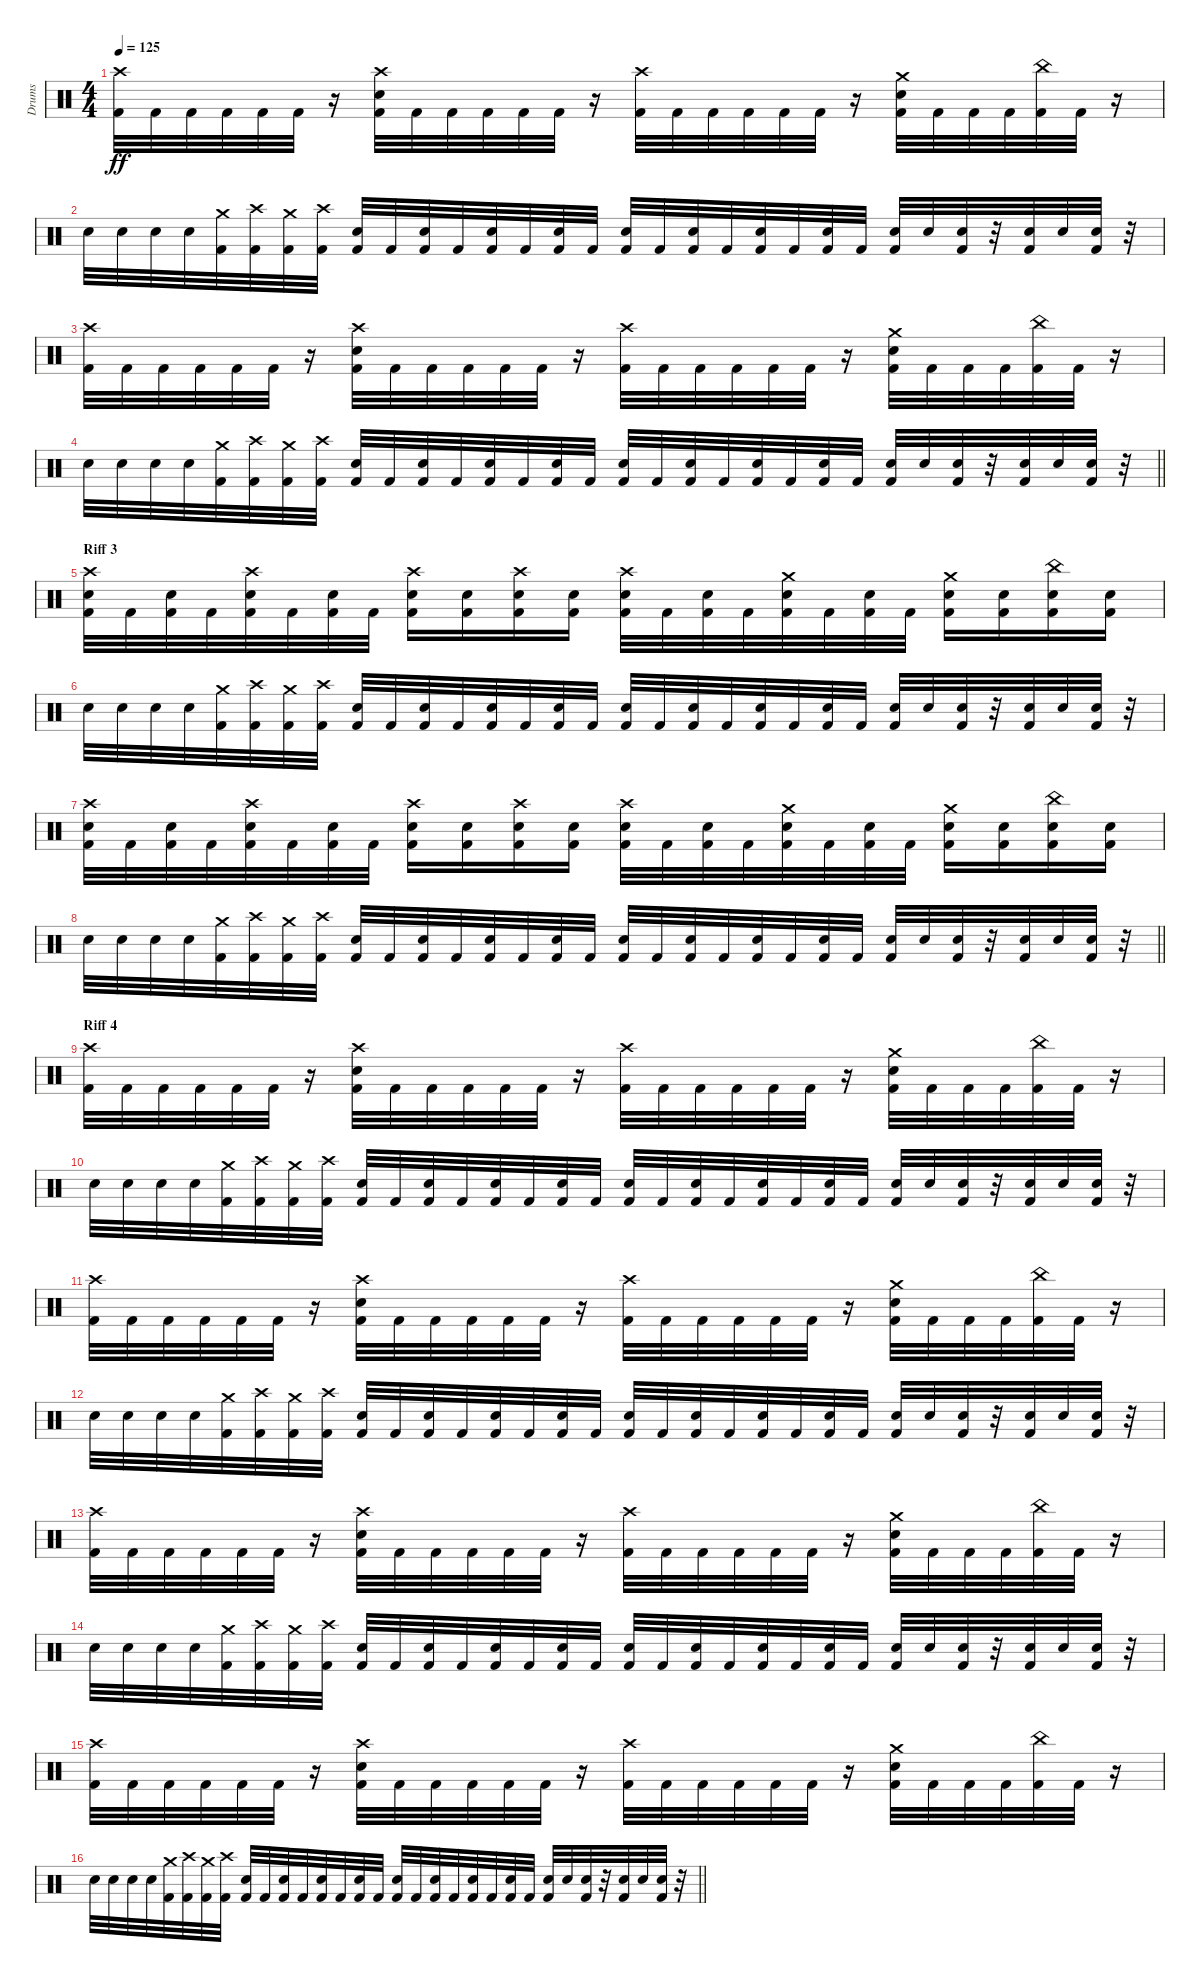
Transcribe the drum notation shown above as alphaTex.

\track ("Drums" "Drums") {instrument percussion}
\staff {score}
\articulation defaults
\ts (4 4)
\tempo 125
\clef neutral
\ks c
("Crash high (hit)" "Kick (hit) 2").32{dy ff} "Kick (hit) 2".32 "Kick (hit) 2".32 "Kick (hit) 2".32 "Kick (hit) 2".32 "Kick (hit) 2".32 r.16 ("Crash high (hit)" "Kick (hit) 2" "Snare (hit) 2").32 "Kick (hit) 2".32 "Kick (hit) 2".32 "Kick (hit) 2".32 "Kick (hit) 2".32 "Kick (hit) 2".32 r.16 ("Crash high (hit)" "Kick (hit) 2").32 "Kick (hit) 2".32 "Kick (hit) 2".32 "Kick (hit) 2".32 "Kick (hit) 2".32 "Kick (hit) 2".32 r.16 ("Crash medium (hit)" "Kick (hit) 2" "Snare (hit) 2").32 "Kick (hit) 2".32 "Kick (hit) 2".32 "Kick (hit) 2".32 ("China (hit)" "Kick (hit) 2").32 "Kick (hit) 2".32 r.16 |
"Snare (hit) 2".32 "Snare (hit) 2".32 "Snare (hit) 2".32 "Snare (hit) 2".32 ("Crash medium (hit)" "Kick (hit) 2").32 ("Crash high (hit)" "Kick (hit) 2").32 ("Crash medium (hit)" "Kick (hit) 2").32 ("Crash high (hit)" "Kick (hit) 2").32 ("Kick (hit) 2" "Snare (hit) 2").32 "Kick (hit) 2".32 ("Kick (hit) 2" "Snare (hit) 2").32 "Kick (hit) 2".32 ("Kick (hit) 2" "Snare (hit) 2").32 "Kick (hit) 2".32 ("Kick (hit) 2" "Snare (hit) 2").32 "Kick (hit) 2".32 ("Kick (hit) 2" "Snare (hit) 2").32 "Kick (hit) 2".32 ("Kick (hit) 2" "Snare (hit) 2").32 "Kick (hit) 2".32 ("Kick (hit) 2" "Snare (hit) 2").32 "Kick (hit) 2".32 ("Kick (hit) 2" "Snare (hit) 2").32 "Kick (hit) 2".32 ("Kick (hit) 2" "Snare (hit) 2").32 "Snare (hit) 2".32 ("Kick (hit) 2" "Snare (hit) 2").32 r.32 ("Kick (hit) 2" "Snare (hit) 2").32 "Snare (hit) 2".32 ("Kick (hit) 2" "Snare (hit) 2").32 r.32 |
("Crash high (hit)" "Kick (hit) 2").32 "Kick (hit) 2".32 "Kick (hit) 2".32 "Kick (hit) 2".32 "Kick (hit) 2".32 "Kick (hit) 2".32 r.16 ("Crash high (hit)" "Kick (hit) 2" "Snare (hit) 2").32 "Kick (hit) 2".32 "Kick (hit) 2".32 "Kick (hit) 2".32 "Kick (hit) 2".32 "Kick (hit) 2".32 r.16 ("Crash high (hit)" "Kick (hit) 2").32 "Kick (hit) 2".32 "Kick (hit) 2".32 "Kick (hit) 2".32 "Kick (hit) 2".32 "Kick (hit) 2".32 r.16 ("Crash medium (hit)" "Kick (hit) 2" "Snare (hit) 2").32 "Kick (hit) 2".32 "Kick (hit) 2".32 "Kick (hit) 2".32 ("China (hit)" "Kick (hit) 2").32 "Kick (hit) 2".32 r.16 |
\barLineRight lightlight "Snare (hit) 2".32 "Snare (hit) 2".32 "Snare (hit) 2".32 "Snare (hit) 2".32
("Crash medium (hit)" "Kick (hit) 2").32 ("Crash high (hit)" "Kick (hit) 2").32 ("Crash medium (hit)" "Kick (hit) 2").32 ("Crash high (hit)" "Kick (hit) 2").32 ("Kick (hit) 2" "Snare (hit) 2").32 "Kick (hit) 2".32 ("Kick (hit) 2" "Snare (hit) 2").32 "Kick (hit) 2".32 ("Kick (hit) 2" "Snare (hit) 2").32 "Kick (hit) 2".32 ("Kick (hit) 2" "Snare (hit) 2").32 "Kick (hit) 2".32 ("Kick (hit) 2" "Snare (hit) 2").32 "Kick (hit) 2".32 ("Kick (hit) 2" "Snare (hit) 2").32 "Kick (hit) 2".32 ("Kick (hit) 2" "Snare (hit) 2").32 "Kick (hit) 2".32 ("Kick (hit) 2" "Snare (hit) 2").32 "Kick (hit) 2".32 ("Kick (hit) 2" "Snare (hit) 2").32 "Snare (hit) 2".32 ("Kick (hit) 2" "Snare (hit) 2").32 r.32 ("Kick (hit) 2" "Snare (hit) 2").32 "Snare (hit) 2".32 ("Kick (hit) 2" "Snare (hit) 2").32 r.32 |
\section ("" "Riff 3")
("Crash high (hit)" "Kick (hit) 2" "Snare (hit) 2").32 "Kick (hit) 2".32 ("Kick (hit) 2" "Snare (hit) 2").32 "Kick (hit) 2".32 ("Crash high (hit)" "Kick (hit) 2" "Snare (hit) 2").32 "Kick (hit) 2".32 ("Kick (hit) 2" "Snare (hit) 2").32 "Kick (hit) 2".32 ("Crash high (hit)" "Kick (hit) 2" "Snare (hit) 2").16 ("Kick (hit) 2" "Snare (hit) 2").16 ("Crash high (hit)" "Kick (hit) 2" "Snare (hit) 2").16 ("Kick (hit) 2" "Snare (hit) 2").16 ("Crash high (hit)" "Kick (hit) 2" "Snare (hit) 2").32 "Kick (hit) 2".32 ("Kick (hit) 2" "Snare (hit) 2").32 "Kick (hit) 2".32 ("Crash medium (hit)" "Kick (hit) 2" "Snare (hit) 2").32 "Kick (hit) 2".32 ("Kick (hit) 2" "Snare (hit) 2").32 "Kick (hit) 2".32 ("Crash medium (hit)" "Kick (hit) 2" "Snare (hit) 2").16 ("Kick (hit) 2" "Snare (hit) 2").16 ("China (hit)" "Kick (hit) 2" "Snare (hit) 2").16 ("Kick (hit) 2" "Snare (hit) 2").16 |
"Snare (hit) 2".32 "Snare (hit) 2".32 "Snare (hit) 2".32 "Snare (hit) 2".32 ("Crash medium (hit)" "Kick (hit) 2").32 ("Crash high (hit)" "Kick (hit) 2").32 ("Crash medium (hit)" "Kick (hit) 2").32 ("Crash high (hit)" "Kick (hit) 2").32 ("Kick (hit) 2" "Snare (hit) 2").32 "Kick (hit) 2".32 ("Kick (hit) 2" "Snare (hit) 2").32 "Kick (hit) 2".32 ("Kick (hit) 2" "Snare (hit) 2").32 "Kick (hit) 2".32 ("Kick (hit) 2" "Snare (hit) 2").32 "Kick (hit) 2".32 ("Kick (hit) 2" "Snare (hit) 2").32 "Kick (hit) 2".32 ("Kick (hit) 2" "Snare (hit) 2").32 "Kick (hit) 2".32 ("Kick (hit) 2" "Snare (hit) 2").32 "Kick (hit) 2".32 ("Kick (hit) 2" "Snare (hit) 2").32 "Kick (hit) 2".32 ("Kick (hit) 2" "Snare (hit) 2").32 "Snare (hit) 2".32 ("Kick (hit) 2" "Snare (hit) 2").32 r.32 ("Kick (hit) 2" "Snare (hit) 2").32 "Snare (hit) 2".32 ("Kick (hit) 2" "Snare (hit) 2").32 r.32 |
("Crash high (hit)" "Kick (hit) 2" "Snare (hit) 2").32 "Kick (hit) 2".32 ("Kick (hit) 2" "Snare (hit) 2").32 "Kick (hit) 2".32 ("Crash high (hit)" "Kick (hit) 2" "Snare (hit) 2").32 "Kick (hit) 2".32 ("Kick (hit) 2" "Snare (hit) 2").32 "Kick (hit) 2".32 ("Crash high (hit)" "Kick (hit) 2" "Snare (hit) 2").16 ("Kick (hit) 2" "Snare (hit) 2").16 ("Crash high (hit)" "Kick (hit) 2" "Snare (hit) 2").16 ("Kick (hit) 2" "Snare (hit) 2").16 ("Crash high (hit)" "Kick (hit) 2" "Snare (hit) 2").32 "Kick (hit) 2".32 ("Kick (hit) 2" "Snare (hit) 2").32 "Kick (hit) 2".32 ("Crash medium (hit)" "Kick (hit) 2" "Snare (hit) 2").32 "Kick (hit) 2".32 ("Kick (hit) 2" "Snare (hit) 2").32 "Kick (hit) 2".32 ("Crash medium (hit)" "Kick (hit) 2" "Snare (hit) 2").16 ("Kick (hit) 2" "Snare (hit) 2").16 ("China (hit)" "Kick (hit) 2" "Snare (hit) 2").16 ("Kick (hit) 2" "Snare (hit) 2").16 |
\barLineRight lightlight "Snare (hit) 2".32 "Snare (hit) 2".32 "Snare (hit) 2".32 "Snare (hit) 2".32
("Crash medium (hit)" "Kick (hit) 2").32 ("Crash high (hit)" "Kick (hit) 2").32 ("Crash medium (hit)" "Kick (hit) 2").32 ("Crash high (hit)" "Kick (hit) 2").32 ("Kick (hit) 2" "Snare (hit) 2").32 "Kick (hit) 2".32 ("Kick (hit) 2" "Snare (hit) 2").32 "Kick (hit) 2".32 ("Kick (hit) 2" "Snare (hit) 2").32 "Kick (hit) 2".32 ("Kick (hit) 2" "Snare (hit) 2").32 "Kick (hit) 2".32 ("Kick (hit) 2" "Snare (hit) 2").32 "Kick (hit) 2".32 ("Kick (hit) 2" "Snare (hit) 2").32 "Kick (hit) 2".32 ("Kick (hit) 2" "Snare (hit) 2").32 "Kick (hit) 2".32 ("Kick (hit) 2" "Snare (hit) 2").32 "Kick (hit) 2".32 ("Kick (hit) 2" "Snare (hit) 2").32 "Snare (hit) 2".32 ("Kick (hit) 2" "Snare (hit) 2").32 r.32 ("Kick (hit) 2" "Snare (hit) 2").32 "Snare (hit) 2".32 ("Kick (hit) 2" "Snare (hit) 2").32 r.32 |
\section ("" "Riff 4")
("Crash high (hit)" "Kick (hit) 2").32 "Kick (hit) 2".32 "Kick (hit) 2".32 "Kick (hit) 2".32 "Kick (hit) 2".32 "Kick (hit) 2".32 r.16 ("Crash high (hit)" "Kick (hit) 2" "Snare (hit) 2").32 "Kick (hit) 2".32 "Kick (hit) 2".32 "Kick (hit) 2".32 "Kick (hit) 2".32 "Kick (hit) 2".32 r.16 ("Crash high (hit)" "Kick (hit) 2").32 "Kick (hit) 2".32 "Kick (hit) 2".32 "Kick (hit) 2".32 "Kick (hit) 2".32 "Kick (hit) 2".32 r.16 ("Crash medium (hit)" "Kick (hit) 2" "Snare (hit) 2").32 "Kick (hit) 2".32 "Kick (hit) 2".32 "Kick (hit) 2".32 ("China (hit)" "Kick (hit) 2").32 "Kick (hit) 2".32 r.16 |
"Snare (hit) 2".32 "Snare (hit) 2".32 "Snare (hit) 2".32 "Snare (hit) 2".32 ("Crash medium (hit)" "Kick (hit) 2").32 ("Crash high (hit)" "Kick (hit) 2").32 ("Crash medium (hit)" "Kick (hit) 2").32 ("Crash high (hit)" "Kick (hit) 2").32 ("Kick (hit) 2" "Snare (hit) 2").32 "Kick (hit) 2".32 ("Kick (hit) 2" "Snare (hit) 2").32 "Kick (hit) 2".32 ("Kick (hit) 2" "Snare (hit) 2").32 "Kick (hit) 2".32 ("Kick (hit) 2" "Snare (hit) 2").32 "Kick (hit) 2".32 ("Kick (hit) 2" "Snare (hit) 2").32 "Kick (hit) 2".32 ("Kick (hit) 2" "Snare (hit) 2").32 "Kick (hit) 2".32 ("Kick (hit) 2" "Snare (hit) 2").32 "Kick (hit) 2".32 ("Kick (hit) 2" "Snare (hit) 2").32 "Kick (hit) 2".32 ("Kick (hit) 2" "Snare (hit) 2").32 "Snare (hit) 2".32 ("Kick (hit) 2" "Snare (hit) 2").32 r.32 ("Kick (hit) 2" "Snare (hit) 2").32 "Snare (hit) 2".32 ("Kick (hit) 2" "Snare (hit) 2").32 r.32 |
("Crash high (hit)" "Kick (hit) 2").32 "Kick (hit) 2".32 "Kick (hit) 2".32 "Kick (hit) 2".32 "Kick (hit) 2".32 "Kick (hit) 2".32 r.16 ("Crash high (hit)" "Kick (hit) 2" "Snare (hit) 2").32 "Kick (hit) 2".32 "Kick (hit) 2".32 "Kick (hit) 2".32 "Kick (hit) 2".32 "Kick (hit) 2".32 r.16 ("Crash high (hit)" "Kick (hit) 2").32 "Kick (hit) 2".32 "Kick (hit) 2".32 "Kick (hit) 2".32 "Kick (hit) 2".32 "Kick (hit) 2".32 r.16 ("Crash medium (hit)" "Kick (hit) 2" "Snare (hit) 2").32 "Kick (hit) 2".32 "Kick (hit) 2".32 "Kick (hit) 2".32 ("China (hit)" "Kick (hit) 2").32 "Kick (hit) 2".32 r.16 |
"Snare (hit) 2".32 "Snare (hit) 2".32 "Snare (hit) 2".32 "Snare (hit) 2".32 ("Crash medium (hit)" "Kick (hit) 2").32 ("Crash high (hit)" "Kick (hit) 2").32 ("Crash medium (hit)" "Kick (hit) 2").32 ("Crash high (hit)" "Kick (hit) 2").32 ("Kick (hit) 2" "Snare (hit) 2").32 "Kick (hit) 2".32 ("Kick (hit) 2" "Snare (hit) 2").32 "Kick (hit) 2".32 ("Kick (hit) 2" "Snare (hit) 2").32 "Kick (hit) 2".32 ("Kick (hit) 2" "Snare (hit) 2").32 "Kick (hit) 2".32 ("Kick (hit) 2" "Snare (hit) 2").32 "Kick (hit) 2".32 ("Kick (hit) 2" "Snare (hit) 2").32 "Kick (hit) 2".32 ("Kick (hit) 2" "Snare (hit) 2").32 "Kick (hit) 2".32 ("Kick (hit) 2" "Snare (hit) 2").32 "Kick (hit) 2".32 ("Kick (hit) 2" "Snare (hit) 2").32 "Snare (hit) 2".32 ("Kick (hit) 2" "Snare (hit) 2").32 r.32 ("Kick (hit) 2" "Snare (hit) 2").32 "Snare (hit) 2".32 ("Kick (hit) 2" "Snare (hit) 2").32 r.32 |
("Crash high (hit)" "Kick (hit) 2").32 "Kick (hit) 2".32 "Kick (hit) 2".32 "Kick (hit) 2".32 "Kick (hit) 2".32 "Kick (hit) 2".32 r.16 ("Crash high (hit)" "Kick (hit) 2" "Snare (hit) 2").32 "Kick (hit) 2".32 "Kick (hit) 2".32 "Kick (hit) 2".32 "Kick (hit) 2".32 "Kick (hit) 2".32 r.16 ("Crash high (hit)" "Kick (hit) 2").32 "Kick (hit) 2".32 "Kick (hit) 2".32 "Kick (hit) 2".32 "Kick (hit) 2".32 "Kick (hit) 2".32 r.16 ("Crash medium (hit)" "Kick (hit) 2" "Snare (hit) 2").32 "Kick (hit) 2".32 "Kick (hit) 2".32 "Kick (hit) 2".32 ("China (hit)" "Kick (hit) 2").32 "Kick (hit) 2".32 r.16 |
"Snare (hit) 2".32 "Snare (hit) 2".32 "Snare (hit) 2".32 "Snare (hit) 2".32 ("Crash medium (hit)" "Kick (hit) 2").32 ("Crash high (hit)" "Kick (hit) 2").32 ("Crash medium (hit)" "Kick (hit) 2").32 ("Crash high (hit)" "Kick (hit) 2").32 ("Kick (hit) 2" "Snare (hit) 2").32 "Kick (hit) 2".32 ("Kick (hit) 2" "Snare (hit) 2").32 "Kick (hit) 2".32 ("Kick (hit) 2" "Snare (hit) 2").32 "Kick (hit) 2".32 ("Kick (hit) 2" "Snare (hit) 2").32 "Kick (hit) 2".32 ("Kick (hit) 2" "Snare (hit) 2").32 "Kick (hit) 2".32 ("Kick (hit) 2" "Snare (hit) 2").32 "Kick (hit) 2".32 ("Kick (hit) 2" "Snare (hit) 2").32 "Kick (hit) 2".32 ("Kick (hit) 2" "Snare (hit) 2").32 "Kick (hit) 2".32 ("Kick (hit) 2" "Snare (hit) 2").32 "Snare (hit) 2".32 ("Kick (hit) 2" "Snare (hit) 2").32 r.32 ("Kick (hit) 2" "Snare (hit) 2").32 "Snare (hit) 2".32 ("Kick (hit) 2" "Snare (hit) 2").32 r.32 |
("Crash high (hit)" "Kick (hit) 2").32 "Kick (hit) 2".32 "Kick (hit) 2".32 "Kick (hit) 2".32 "Kick (hit) 2".32 "Kick (hit) 2".32 r.16 ("Crash high (hit)" "Kick (hit) 2" "Snare (hit) 2").32 "Kick (hit) 2".32 "Kick (hit) 2".32 "Kick (hit) 2".32 "Kick (hit) 2".32 "Kick (hit) 2".32 r.16 ("Crash high (hit)" "Kick (hit) 2").32 "Kick (hit) 2".32 "Kick (hit) 2".32 "Kick (hit) 2".32 "Kick (hit) 2".32 "Kick (hit) 2".32 r.16 ("Crash medium (hit)" "Kick (hit) 2" "Snare (hit) 2").32 "Kick (hit) 2".32 "Kick (hit) 2".32 "Kick (hit) 2".32 ("China (hit)" "Kick (hit) 2").32 "Kick (hit) 2".32 r.16 |
\barLineRight lightlight "Snare (hit) 2".32 "Snare (hit) 2".32 "Snare (hit) 2".32 "Snare (hit) 2".32
("Crash medium (hit)" "Kick (hit) 2").32 ("Crash high (hit)" "Kick (hit) 2").32 ("Crash medium (hit)" "Kick (hit) 2").32 ("Crash high (hit)" "Kick (hit) 2").32 ("Kick (hit) 2" "Snare (hit) 2").32 "Kick (hit) 2".32 ("Kick (hit) 2" "Snare (hit) 2").32 "Kick (hit) 2".32 ("Kick (hit) 2" "Snare (hit) 2").32 "Kick (hit) 2".32 ("Kick (hit) 2" "Snare (hit) 2").32 "Kick (hit) 2".32 ("Kick (hit) 2" "Snare (hit) 2").32 "Kick (hit) 2".32 ("Kick (hit) 2" "Snare (hit) 2").32 "Kick (hit) 2".32 ("Kick (hit) 2" "Snare (hit) 2").32 "Kick (hit) 2".32 ("Kick (hit) 2" "Snare (hit) 2").32 "Kick (hit) 2".32 ("Kick (hit) 2" "Snare (hit) 2").32 "Snare (hit) 2".32 ("Kick (hit) 2" "Snare (hit) 2").32 r.32 ("Kick (hit) 2" "Snare (hit) 2").32 "Snare (hit) 2".32 ("Kick (hit) 2" "Snare (hit) 2").32 r.32
